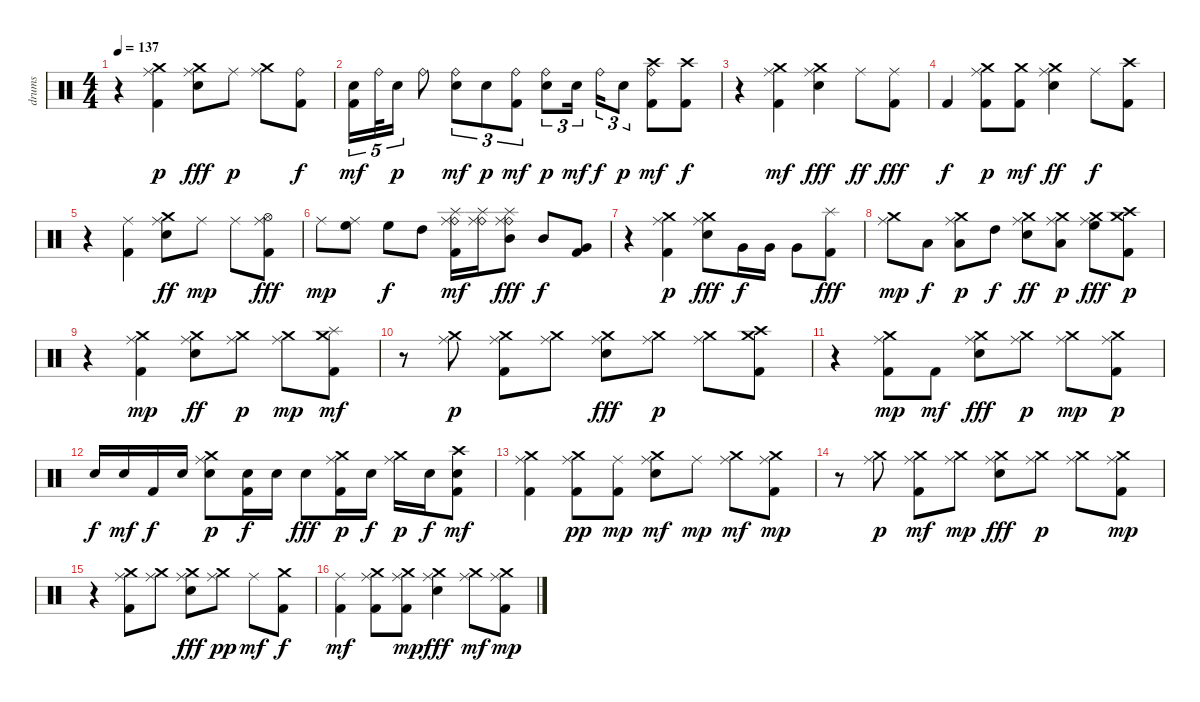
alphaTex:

\track ("drums" "drums") {instrument percussion}
\staff {score}
\articulation defaults
\ts (4 4)
\tempo 137
\clef neutral
\ks c
r.4{dy f} ("Crash medium (hit)" "Ride (middle)" "Kick (hit) 2").4{dy p} ("Crash medium (hit)" "Ride (middle)" "Electric Snare (hit)").8{dy fff} "Ride (middle)".8{dy p} ("Crash medium (hit)" "Ride (middle)").8 ("Kick (hit) 2" "Ride (bell)").8{dy f} |
("Kick (hit) 2" "Electric Snare (hit)").16{tu (5 4) dy mf} "Ride (bell)".32{tu (5 4)} "Electric Snare (hit)".16{tu (5 4) dy p} "Ride (bell)".8 ("Electric Snare (hit)" "Ride (bell)").8{tu (3 2) dy mf} "Electric Snare (hit)".8{tu (3 2) dy p} ("Kick (hit) 2" "Ride (bell)").8{tu (3 2) dy mf} ("Electric Snare (hit)" "Ride (bell)").8{tu (3 2) dy p} "Electric Snare (hit)".16{tu (3 2) dy mf beam splitsecondary} "Ride (bell)".16{tu (3 2) dy f} "Electric Snare (hit)".8{tu (3 2) dy p} ("Kick (hit) 2" "Ride (bell)" "Crash high (hit)").8{dy mf} ("Crash high (hit)" "Kick (hit) 2").8{dy f} |
r.4 ("Crash medium (hit)" "Ride (middle)" "Kick (hit) 2").4{dy mf} ("Crash medium (hit)" "Ride (middle)" "Electric Snare (hit)").4{dy fff} "Ride (middle)".8{dy ff} ("Ride (middle)" "Kick (hit) 2").8{dy fff} |
"Kick (hit) 2".4{dy f} ("Crash medium (hit)" "Ride (middle)" "Kick (hit) 2").8{dy p} ("Kick (hit) 2" "Crash medium (hit)").8{dy mf} ("Electric Snare (hit)" "Crash medium (hit)" "Ride (middle)").4{dy ff} "Ride (middle)".8{dy f} ("Crash high (hit)" "Kick (hit) 2").8 |
r.4 ("Kick (hit) 2" "Ride (middle)").4 ("Crash medium (hit)" "Electric Snare (hit)" "Ride (middle)").8{dy ff} "Ride (middle)".8{dy mp} "Ride (middle)".8 ("Ride (middle)" "Hi-Hat (open)" "Kick (hit) 2").8{dy fff} |
"Ride (middle)".8{dy mp} ("High Floor Tom (hit)" "Ride (middle)").8 "High Floor Tom (hit)".8{dy f} "High Tom (hit)".8 ("Splash (hit)" "Ride (bell)" "Ride (middle)" "Kick (hit) 2").16{dy mf} ("Ride (bell)" "Ride (middle)" "Splash (hit)").16 ("Mid Tom (hit)" "Ride (bell)" "Splash (hit)" "Ride (middle)").8{dy fff} "Mid Tom (hit)".8{dy f} ("Kick (hit) 2" "Very Low Tom (hit)").8 |
r.4 ("Ride (middle)" "Crash medium (hit)" "Kick (hit) 2").4{dy p} ("Ride (middle)" "Crash medium (hit)" "Electric Snare (hit)").8{dy fff} "Very Low Tom (hit)".16{dy f} "Very Low Tom (hit)".16 "Very Low Tom (hit)".8 ("Splash (hit)" "Kick (hit) 2").8{dy fff} |
("Ride (middle)" "Crash medium (hit)").8{dy mp} "Low Tom (hit)".8{dy f} ("Ride (middle)" "Crash medium (hit)" "Low Tom (hit)").8{dy p} "High Tom (hit)".8{dy f} ("Ride (middle)" "Electric Snare (hit)" "Crash medium (hit)").8{dy ff} ("Ride (middle)" "Low Tom (hit)" "Crash medium (hit)").8{dy p} ("Ride (middle)" "Crash medium (hit)" "High Floor Tom (hit)").8{dy fff} ("Crash high (hit)" "Crash medium (hit)" "Kick (hit) 2").8{dy p} |
r.4 ("Ride (middle)" "Crash medium (hit)" "Kick (hit) 2").4{dy mp} ("Ride (middle)" "Electric Snare (hit)" "Crash medium (hit)").8{dy ff} ("Ride (middle)" "Crash medium (hit)").8{dy p} ("Ride (middle)" "Crash medium (hit)").8{dy mp} ("Crash medium (hit)" "Kick (hit) 2" "Splash (hit)").8{dy mf} |
r.8 ("Ride (middle)" "Crash medium (hit)").8{dy p} ("Ride (middle)" "Crash medium (hit)" "Kick (hit) 2").8 ("Ride (middle)" "Crash medium (hit)").8 ("Ride (middle)" "Crash medium (hit)" "Electric Snare (hit)").8{dy fff} ("Ride (middle)" "Crash medium (hit)").8{dy p} ("Ride (middle)" "Crash medium (hit)").8 ("Crash high (hit)" "Crash medium (hit)" "Kick (hit) 2").8 |
r.4 ("Ride (middle)" "Crash medium (hit)" "Kick (hit) 2").8{dy mp} "Kick (hit) 2".8{dy mf} ("Ride (middle)" "Crash medium (hit)" "Electric Snare (hit)").8{dy fff} ("Crash medium (hit)" "Ride (middle)").8{dy p} ("Ride (middle)" "Crash medium (hit)").8{dy mp} ("Ride (middle)" "Crash medium (hit)" "Kick (hit) 2").8{dy p} |
"Electric Snare (hit)".16{dy f} "Electric Snare (hit)".16{dy mf} "Kick (hit) 2".16{dy f} "Electric Snare (hit)".16 ("Crash medium (hit)" "Ride (middle)" "Electric Snare (hit)").8{dy p} ("Electric Snare (hit)" "Kick (hit) 2").16{dy f} "Electric Snare (hit)".16 "Electric Snare (hit)".8{dy fff} ("Crash medium (hit)" "Kick (hit) 2" "Ride (middle)").16{dy p} "Electric Snare (hit)".16{dy f} ("Crash medium (hit)" "Ride (middle)").16{dy p} "Electric Snare (hit)".16{dy f} ("Electric Snare (hit)" "Crash high (hit)" "Kick (hit) 2").8{dy mf} |
("Ride (middle)" "Crash medium (hit)" "Kick (hit) 2").4 ("Ride (middle)" "Kick (hit) 2" "Crash medium (hit)").8{dy pp} ("Ride (middle)" "Kick (hit) 2").8{dy mp} ("Crash medium (hit)" "Electric Snare (hit)" "Ride (middle)").8{dy mf} "Ride (middle)".8{dy mp} ("Crash medium (hit)" "Ride (middle)").8{dy mf} ("Crash medium (hit)" "Ride (middle)" "Kick (hit) 2").8{dy mp} |
r.8 ("Ride (middle)" "Crash medium (hit)").8{dy p} ("Crash medium (hit)" "Kick (hit) 2" "Ride (middle)").8{dy mf} ("Crash medium (hit)" "Ride (middle)").8{dy mp} ("Ride (middle)" "Crash medium (hit)" "Electric Snare (hit)").8{dy fff} ("Ride (middle)" "Crash medium (hit)").8{dy p} ("Ride (middle)" "Crash medium (hit)").8 ("Crash medium (hit)" "Ride (middle)" "Kick (hit) 2").8{dy mp} |
r.4 ("Ride (middle)" "Crash medium (hit)" "Kick (hit) 2").8 ("Crash medium (hit)" "Ride (middle)").8 ("Crash medium (hit)" "Ride (middle)" "Electric Snare (hit)").8{dy fff} ("Ride (middle)" "Crash medium (hit)").8{dy pp} "Ride (middle)".8{dy mf} ("Kick (hit) 2" "Crash medium (hit)").8{dy f} |
("Kick (hit) 2" "Ride (middle)").4{dy mf} ("Ride (middle)" "Kick (hit) 2" "Crash medium (hit)").8 ("Crash medium (hit)" "Ride (middle)" "Kick (hit) 2").8{dy mp} ("Crash medium (hit)" "Ride (middle)" "Electric Snare (hit)").4{dy fff} ("Crash medium (hit)" "Ride (middle)").8{dy mf} ("Ride (middle)" "Crash medium (hit)" "Kick (hit) 2").8{dy mp}
